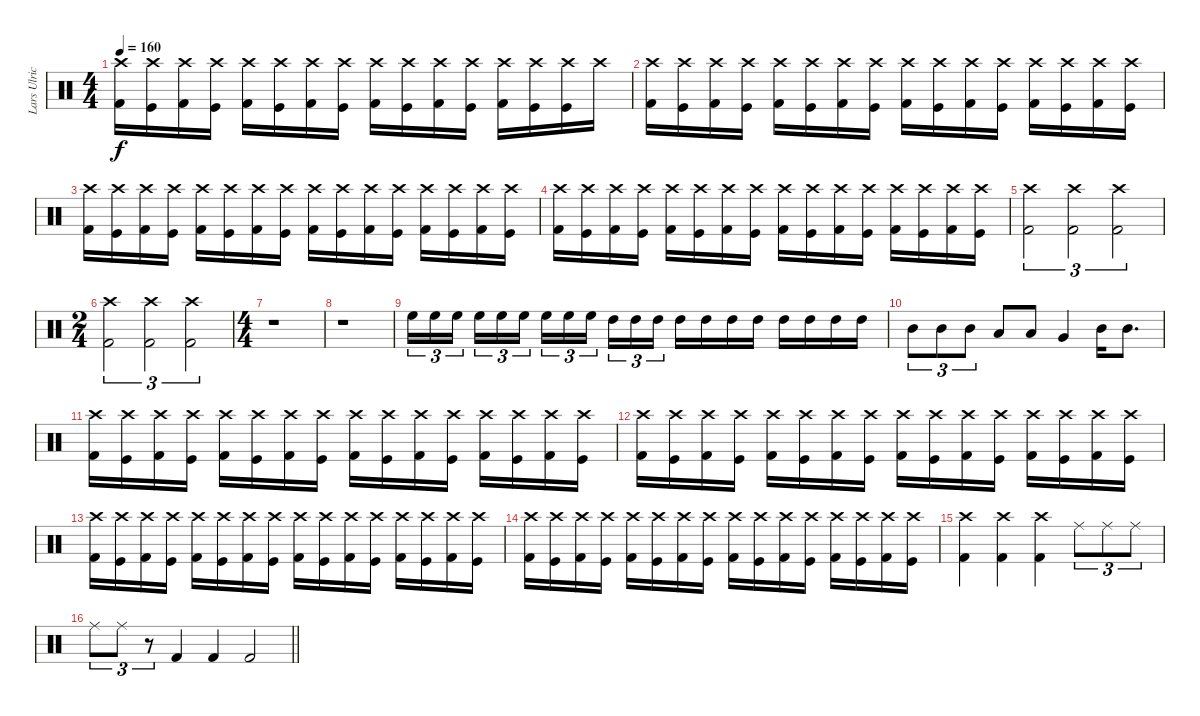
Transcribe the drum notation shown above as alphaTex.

\track ("Lars Ulrich" "Lars Ulric") {instrument percussion}
\staff {score}
\articulation defaults
\ts (4 4)
\tempo 160
\clef neutral
\ks c
("Crash high (hit)" "Kick (hit) 2").16{dy f volume 0} ("Crash high (hit)" "Kick (hit)").16 ("Crash high (hit)" "Kick (hit) 2").16{volume 3} ("Crash high (hit)" "Kick (hit)").16 ("Crash high (hit)" "Kick (hit) 2").16 ("Crash high (hit)" "Kick (hit)").16 ("Crash high (hit)" "Kick (hit) 2").16 ("Crash high (hit)" "Kick (hit)").16 ("Crash high (hit)" "Kick (hit) 2").16 ("Crash high (hit)" "Kick (hit)").16 ("Crash high (hit)" "Kick (hit) 2").16 ("Crash high (hit)" "Kick (hit)").16 ("Crash high (hit)" "Kick (hit) 2").16 ("Crash high (hit)" "Kick (hit)").16 ("Crash high (hit)" "Kick (hit)").16 "Crash high (hit)".16 |
("Crash high (hit)" "Kick (hit) 2").16{volume 6} ("Crash high (hit)" "Kick (hit)").16 ("Crash high (hit)" "Kick (hit) 2").16 ("Crash high (hit)" "Kick (hit)").16 ("Crash high (hit)" "Kick (hit) 2").16 ("Crash high (hit)" "Kick (hit)").16 ("Crash high (hit)" "Kick (hit) 2").16 ("Crash high (hit)" "Kick (hit)").16 ("Crash high (hit)" "Kick (hit) 2").16 ("Crash high (hit)" "Kick (hit)").16 ("Crash high (hit)" "Kick (hit) 2").16 ("Crash high (hit)" "Kick (hit)").16 ("Crash high (hit)" "Kick (hit) 2").16 ("Crash high (hit)" "Kick (hit)").16 ("Crash high (hit)" "Kick (hit) 2").16 ("Crash high (hit)" "Kick (hit)").16 |
("Crash high (hit)" "Kick (hit) 2").16{volume 9} ("Crash high (hit)" "Kick (hit)").16 ("Crash high (hit)" "Kick (hit) 2").16 ("Crash high (hit)" "Kick (hit)").16 ("Crash high (hit)" "Kick (hit) 2").16 ("Crash high (hit)" "Kick (hit)").16 ("Crash high (hit)" "Kick (hit) 2").16 ("Crash high (hit)" "Kick (hit)").16 ("Crash high (hit)" "Kick (hit) 2").16 ("Crash high (hit)" "Kick (hit)").16 ("Crash high (hit)" "Kick (hit) 2").16 ("Crash high (hit)" "Kick (hit)").16 ("Crash high (hit)" "Kick (hit) 2").16 ("Crash high (hit)" "Kick (hit)").16 ("Crash high (hit)" "Kick (hit) 2").16 ("Crash high (hit)" "Kick (hit)").16 |
("Crash high (hit)" "Kick (hit) 2").16{volume 12} ("Crash high (hit)" "Kick (hit)").16 ("Crash high (hit)" "Kick (hit) 2").16 ("Crash high (hit)" "Kick (hit)").16 ("Crash high (hit)" "Kick (hit) 2").16 ("Crash high (hit)" "Kick (hit)").16 ("Crash high (hit)" "Kick (hit) 2").16 ("Crash high (hit)" "Kick (hit)").16 ("Crash high (hit)" "Kick (hit) 2").16 ("Crash high (hit)" "Kick (hit)").16 ("Crash high (hit)" "Kick (hit) 2").16 ("Crash high (hit)" "Kick (hit)").16 ("Crash high (hit)" "Kick (hit) 2").16 ("Crash high (hit)" "Kick (hit)").16 ("Crash high (hit)" "Kick (hit) 2").16 ("Crash high (hit)" "Kick (hit)").16 |
("Crash high (hit)" "Kick (hit) 2").2{tu (3 2)} ("Crash high (hit)" "Kick (hit) 2").2{tu (3 2)} ("Crash high (hit)" "Kick (hit) 2").2{tu (3 2)} |
\ts (2 4)
("Crash high (hit)" "Kick (hit) 2").2{tu (3 2)} ("Crash high (hit)" "Kick (hit) 2").2{tu (3 2)} ("Crash high (hit)" "Kick (hit) 2").2{tu (3 2)} |
\ts (4 4)
r.1 |
r.1 |
"High Floor Tom (hit)".16{tu (3 2)} "High Floor Tom (hit)".16{tu (3 2)} "High Floor Tom (hit)".16{tu (3 2)} "High Floor Tom (hit)".16{tu (3 2)} "High Floor Tom (hit)".16{tu (3 2)} "High Floor Tom (hit)".16{tu (3 2)} "High Floor Tom (hit)".16{tu (3 2)} "High Floor Tom (hit)".16{tu (3 2)} "High Floor Tom (hit)".16{tu (3 2)} "High Tom (hit)".16{tu (3 2)} "High Tom (hit)".16{tu (3 2)} "High Tom (hit)".16{tu (3 2)} "High Tom (hit)".16 "High Tom (hit)".16 "High Tom (hit)".16 "High Tom (hit)".16 "High Tom (hit)".16 "High Tom (hit)".16 "High Tom (hit)".16 "High Tom (hit)".16 |
"Mid Tom (hit)".8{tu (3 2)} "Mid Tom (hit)".8{tu (3 2)} "Mid Tom (hit)".8{tu (3 2)} "Low Tom (hit)".8 "Low Tom (hit)".8 "Very Low Tom (hit)".4 "Mid Tom (hit)".16 "Mid Tom (hit)".8{d} |
("Crash high (hit)" "Kick (hit) 2").16 ("Crash high (hit)" "Kick (hit)").16 ("Crash high (hit)" "Kick (hit) 2").16 ("Crash high (hit)" "Kick (hit)").16 ("Crash high (hit)" "Kick (hit) 2").16 ("Crash high (hit)" "Kick (hit)").16 ("Crash high (hit)" "Kick (hit) 2").16 ("Crash high (hit)" "Kick (hit)").16 ("Crash high (hit)" "Kick (hit) 2").16 ("Crash high (hit)" "Kick (hit)").16 ("Crash high (hit)" "Kick (hit) 2").16 ("Crash high (hit)" "Kick (hit)").16 ("Crash high (hit)" "Kick (hit) 2").16 ("Crash high (hit)" "Kick (hit)").16 ("Crash high (hit)" "Kick (hit) 2").16 ("Crash high (hit)" "Kick (hit)").16 |
("Crash high (hit)" "Kick (hit) 2").16 ("Crash high (hit)" "Kick (hit)").16 ("Crash high (hit)" "Kick (hit) 2").16 ("Crash high (hit)" "Kick (hit)").16 ("Crash high (hit)" "Kick (hit) 2").16 ("Crash high (hit)" "Kick (hit)").16 ("Crash high (hit)" "Kick (hit) 2").16 ("Crash high (hit)" "Kick (hit)").16 ("Crash high (hit)" "Kick (hit) 2").16 ("Crash high (hit)" "Kick (hit)").16 ("Crash high (hit)" "Kick (hit) 2").16 ("Crash high (hit)" "Kick (hit)").16 ("Crash high (hit)" "Kick (hit) 2").16 ("Crash high (hit)" "Kick (hit)").16 ("Crash high (hit)" "Kick (hit) 2").16 ("Crash high (hit)" "Kick (hit)").16 |
("Crash high (hit)" "Kick (hit) 2").16 ("Crash high (hit)" "Kick (hit)").16 ("Crash high (hit)" "Kick (hit) 2").16 ("Crash high (hit)" "Kick (hit)").16 ("Crash high (hit)" "Kick (hit) 2").16 ("Crash high (hit)" "Kick (hit)").16 ("Crash high (hit)" "Kick (hit) 2").16 ("Crash high (hit)" "Kick (hit)").16 ("Crash high (hit)" "Kick (hit) 2").16 ("Crash high (hit)" "Kick (hit)").16 ("Crash high (hit)" "Kick (hit) 2").16 ("Crash high (hit)" "Kick (hit)").16 ("Crash high (hit)" "Kick (hit) 2").16 ("Crash high (hit)" "Kick (hit)").16 ("Crash high (hit)" "Kick (hit) 2").16 ("Crash high (hit)" "Kick (hit)").16 |
("Crash high (hit)" "Kick (hit) 2").16 ("Crash high (hit)" "Kick (hit)").16 ("Crash high (hit)" "Kick (hit) 2").16 ("Crash high (hit)" "Kick (hit)").16 ("Crash high (hit)" "Kick (hit) 2").16 ("Crash high (hit)" "Kick (hit)").16 ("Crash high (hit)" "Kick (hit) 2").16 ("Crash high (hit)" "Kick (hit)").16 ("Crash high (hit)" "Kick (hit) 2").16 ("Crash high (hit)" "Kick (hit)").16 ("Crash high (hit)" "Kick (hit) 2").16 ("Crash high (hit)" "Kick (hit)").16 ("Crash high (hit)" "Kick (hit) 2").16 ("Crash high (hit)" "Kick (hit)").16 ("Crash high (hit)" "Kick (hit) 2").16 ("Crash high (hit)" "Kick (hit)").16 |
("Crash high (hit)" "Kick (hit) 2").4 ("Crash high (hit)" "Kick (hit) 2").4 ("Crash high (hit)" "Kick (hit) 2").4 "Ride (middle)".8{tu (3 2)} "Ride (middle)".8{tu (3 2)} "Ride (middle)".8{tu (3 2)} |
\barLineRight lightlight "Ride (middle)".8{tu (3 2)} "Ride (middle)".8{tu (3 2)}
r.8{tu (3 2)} "Kick (hit) 2".4 "Kick (hit) 2".4 "Kick (hit) 2".2
